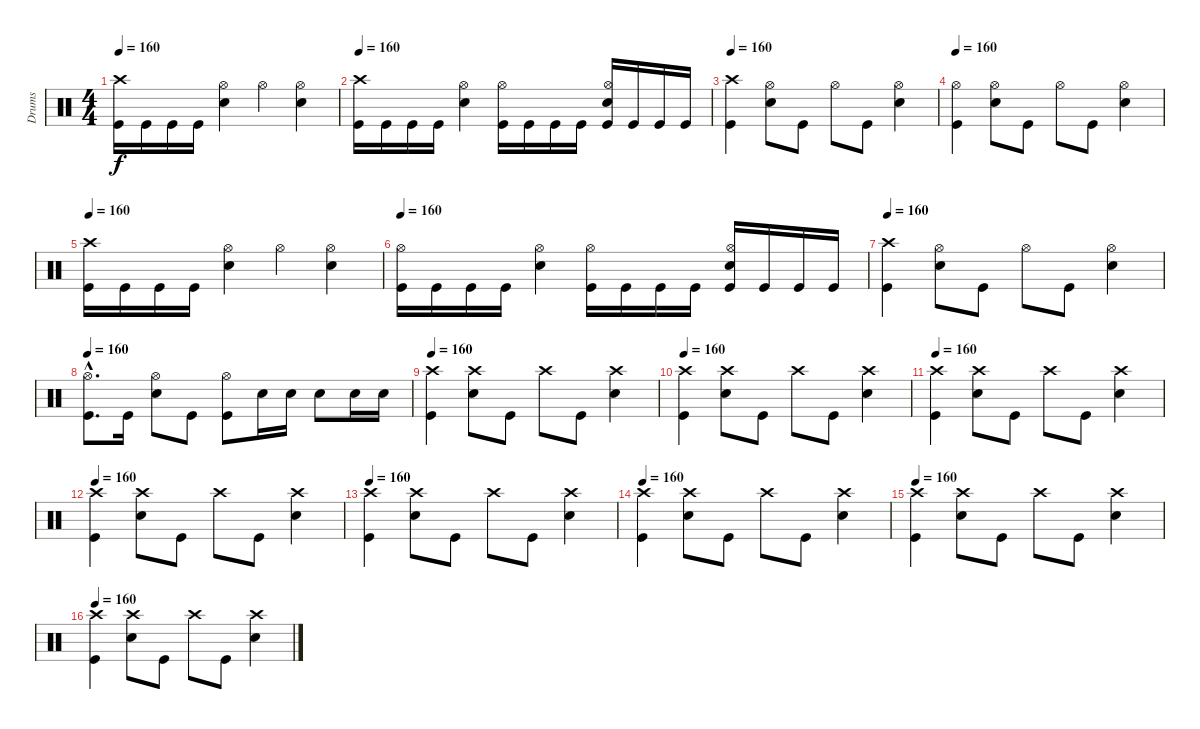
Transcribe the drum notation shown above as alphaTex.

\track ("Drums" "Drums") {instrument percussion}
\staff {score}
\articulation defaults
\ts (4 4)
\tempo 160
\clef neutral
\ks c
("Crash high (hit)" "Kick (hit)").16{dy f} "Kick (hit)".16 "Kick (hit)".16 "Kick (hit)".16 ("Hi-Hat (open)" "Electric Snare (hit)").4 "Hi-Hat (open)".4 ("Hi-Hat (open)" "Electric Snare (hit)").4 |
\tempo 160
("Crash high (hit)" "Kick (hit)").16 "Kick (hit)".16 "Kick (hit)".16 "Kick (hit)".16 ("Hi-Hat (open)" "Electric Snare (hit)").4 ("Hi-Hat (open)" "Kick (hit)").16 "Kick (hit)".16 "Kick (hit)".16 "Kick (hit)".16 ("Hi-Hat (open)" "Electric Snare (hit)" "Kick (hit)").16 "Kick (hit)".16 "Kick (hit)".16 "Kick (hit)".16 |
\tempo 160
("Crash high (hit)" "Kick (hit)").4 ("Hi-Hat (open)" "Electric Snare (hit)").8 "Kick (hit)".8 "Hi-Hat (open)".8 "Kick (hit)".8 ("Hi-Hat (open)" "Electric Snare (hit)").4 |
\tempo 160
("Hi-Hat (open)" "Kick (hit)").4 ("Hi-Hat (open)" "Electric Snare (hit)").8 "Kick (hit)".8 "Hi-Hat (open)".8 "Kick (hit)".8 ("Hi-Hat (open)" "Electric Snare (hit)").4 |
\tempo 160
("Crash high (hit)" "Kick (hit)").16 "Kick (hit)".16 "Kick (hit)".16 "Kick (hit)".16 ("Hi-Hat (open)" "Electric Snare (hit)").4 "Hi-Hat (open)".4 ("Hi-Hat (open)" "Electric Snare (hit)").4 |
\tempo 160
("Hi-Hat (open)" "Kick (hit)").16 "Kick (hit)".16 "Kick (hit)".16 "Kick (hit)".16 ("Hi-Hat (open)" "Electric Snare (hit)").4 ("Hi-Hat (open)" "Kick (hit)").16 "Kick (hit)".16 "Kick (hit)".16 "Kick (hit)".16 ("Hi-Hat (open)" "Electric Snare (hit)" "Kick (hit)").16 "Kick (hit)".16 "Kick (hit)".16 "Kick (hit)".16 |
\tempo 160
("Crash high (hit)" "Kick (hit)").4 ("Hi-Hat (open)" "Electric Snare (hit)").8 "Kick (hit)".8 "Hi-Hat (open)".8 "Kick (hit)".8 ("Hi-Hat (open)" "Electric Snare (hit)").4 |
\tempo 160
("Hi-Hat (open)"{hac} "Kick (hit)"{hac}).8{d} "Kick (hit)".16 ("Hi-Hat (open)" "Electric Snare (hit)").8 "Kick (hit)".8 ("Hi-Hat (open)" "Kick (hit)").8 "Electric Snare (hit)".16 "Electric Snare (hit)".16 "Electric Snare (hit)".8 "Electric Snare (hit)".16 "Electric Snare (hit)".16 |
\tempo 160
("Crash high (hit)" "Kick (hit)").4 ("Crash high (hit)" "Electric Snare (hit)").8 "Kick (hit)".8 "Crash high (hit)".8 "Kick (hit)".8 ("Crash high (hit)" "Electric Snare (hit)").4 |
\tempo 160
("Crash high (hit)" "Kick (hit)").4 ("Crash high (hit)" "Electric Snare (hit)").8 "Kick (hit)".8 "Crash high (hit)".8 "Kick (hit)".8 ("Crash high (hit)" "Electric Snare (hit)").4 |
\tempo 160
("Crash high (hit)" "Kick (hit)").4 ("Crash high (hit)" "Electric Snare (hit)").8 "Kick (hit)".8 "Crash high (hit)".8 "Kick (hit)".8 ("Crash high (hit)" "Electric Snare (hit)").4 |
\tempo 160
("Crash high (hit)" "Kick (hit)").4 ("Crash high (hit)" "Electric Snare (hit)").8 "Kick (hit)".8 "Crash high (hit)".8 "Kick (hit)".8 ("Crash high (hit)" "Electric Snare (hit)").4 |
\tempo 160
("Crash high (hit)" "Kick (hit)").4 ("Crash high (hit)" "Electric Snare (hit)").8 "Kick (hit)".8 "Crash high (hit)".8 "Kick (hit)".8 ("Crash high (hit)" "Electric Snare (hit)").4 |
\tempo 160
("Crash high (hit)" "Kick (hit)").4 ("Crash high (hit)" "Electric Snare (hit)").8 "Kick (hit)".8 "Crash high (hit)".8 "Kick (hit)".8 ("Crash high (hit)" "Electric Snare (hit)").4 |
\tempo 160
("Crash high (hit)" "Kick (hit)").4 ("Crash high (hit)" "Electric Snare (hit)").8 "Kick (hit)".8 "Crash high (hit)".8 "Kick (hit)".8 ("Crash high (hit)" "Electric Snare (hit)").4 |
\tempo 160
("Crash high (hit)" "Kick (hit)").4 ("Crash high (hit)" "Electric Snare (hit)").8 "Kick (hit)".8 "Crash high (hit)".8 "Kick (hit)".8 ("Crash high (hit)" "Electric Snare (hit)").4
